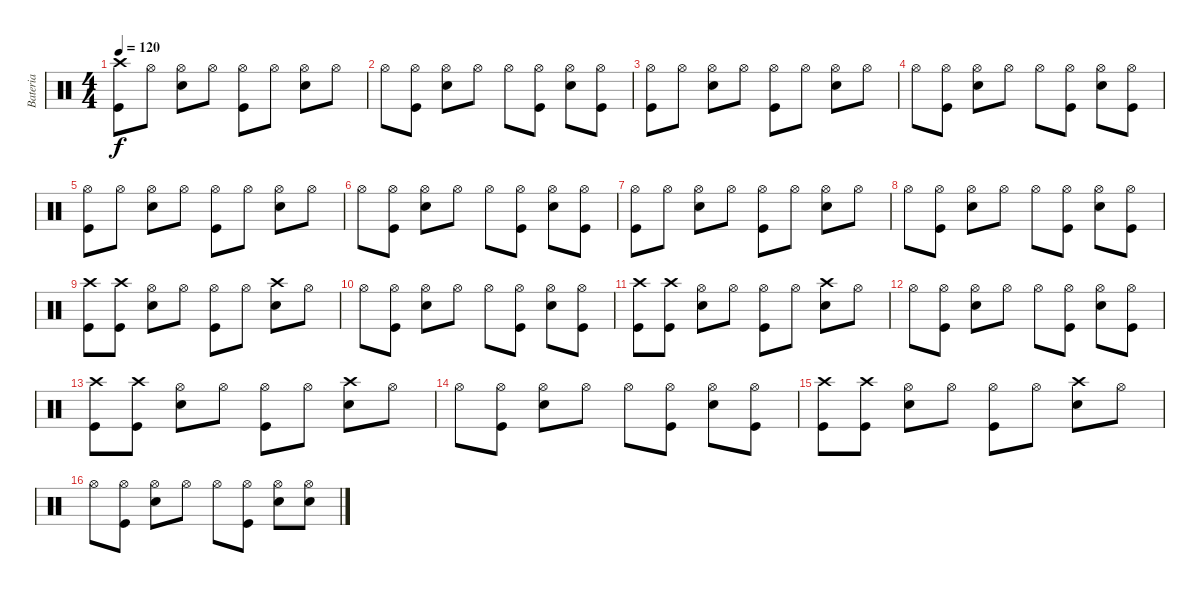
\track ("Bateria" "Bateria") {instrument percussion}
\staff {score}
\articulation defaults
\ts (4 4)
\tempo 120
\clef neutral
\ks c
("Kick (hit)" "Crash high (hit)").8{dy f} "Hi-Hat (open)".8 ("Electric Snare (hit)" "Hi-Hat (open)").8 "Hi-Hat (open)".8 ("Kick (hit)" "Hi-Hat (open)").8 "Hi-Hat (open)".8 ("Electric Snare (hit)" "Hi-Hat (open)").8 "Hi-Hat (open)".8 |
"Hi-Hat (open)".8 ("Kick (hit)" "Hi-Hat (open)").8 ("Electric Snare (hit)" "Hi-Hat (open)").8 "Hi-Hat (open)".8 "Hi-Hat (open)".8 ("Kick (hit)" "Hi-Hat (open)").8 ("Electric Snare (hit)" "Hi-Hat (open)").8 ("Kick (hit)" "Hi-Hat (open)").8 |
("Kick (hit)" "Hi-Hat (open)").8 "Hi-Hat (open)".8 ("Electric Snare (hit)" "Hi-Hat (open)").8 "Hi-Hat (open)".8 ("Kick (hit)" "Hi-Hat (open)").8 "Hi-Hat (open)".8 ("Electric Snare (hit)" "Hi-Hat (open)").8 "Hi-Hat (open)".8 |
"Hi-Hat (open)".8 ("Kick (hit)" "Hi-Hat (open)").8 ("Electric Snare (hit)" "Hi-Hat (open)").8 "Hi-Hat (open)".8 "Hi-Hat (open)".8 ("Kick (hit)" "Hi-Hat (open)").8 ("Electric Snare (hit)" "Hi-Hat (open)").8 ("Kick (hit)" "Hi-Hat (open)").8 |
("Kick (hit)" "Hi-Hat (open)").8 "Hi-Hat (open)".8 ("Electric Snare (hit)" "Hi-Hat (open)").8 "Hi-Hat (open)".8 ("Kick (hit)" "Hi-Hat (open)").8 "Hi-Hat (open)".8 ("Electric Snare (hit)" "Hi-Hat (open)").8 "Hi-Hat (open)".8 |
"Hi-Hat (open)".8 ("Kick (hit)" "Hi-Hat (open)").8 ("Electric Snare (hit)" "Hi-Hat (open)").8 "Hi-Hat (open)".8 "Hi-Hat (open)".8 ("Kick (hit)" "Hi-Hat (open)").8 ("Electric Snare (hit)" "Hi-Hat (open)").8 ("Kick (hit)" "Hi-Hat (open)").8 |
("Kick (hit)" "Hi-Hat (open)").8 "Hi-Hat (open)".8 ("Electric Snare (hit)" "Hi-Hat (open)").8 "Hi-Hat (open)".8 ("Kick (hit)" "Hi-Hat (open)").8 "Hi-Hat (open)".8 ("Electric Snare (hit)" "Hi-Hat (open)").8 "Hi-Hat (open)".8 |
"Hi-Hat (open)".8 ("Kick (hit)" "Hi-Hat (open)").8 ("Electric Snare (hit)" "Hi-Hat (open)").8 "Hi-Hat (open)".8 "Hi-Hat (open)".8 ("Kick (hit)" "Hi-Hat (open)").8 ("Electric Snare (hit)" "Hi-Hat (open)").8 ("Kick (hit)" "Hi-Hat (open)").8 |
("Kick (hit)" "Crash high (hit)").8 ("Kick (hit)" "Crash high (hit)").8 ("Electric Snare (hit)" "Hi-Hat (open)").8 "Hi-Hat (open)".8 ("Kick (hit)" "Hi-Hat (open)").8 "Hi-Hat (open)".8 ("Electric Snare (hit)" "Crash high (hit)").8 "Hi-Hat (open)".8 |
"Hi-Hat (open)".8 ("Kick (hit)" "Hi-Hat (open)").8 ("Electric Snare (hit)" "Hi-Hat (open)").8 "Hi-Hat (open)".8 "Hi-Hat (open)".8 ("Kick (hit)" "Hi-Hat (open)").8 ("Electric Snare (hit)" "Hi-Hat (open)").8 ("Kick (hit)" "Hi-Hat (open)").8 |
("Kick (hit)" "Crash high (hit)").8 ("Kick (hit)" "Crash high (hit)").8 ("Electric Snare (hit)" "Hi-Hat (open)").8 "Hi-Hat (open)".8 ("Kick (hit)" "Hi-Hat (open)").8 "Hi-Hat (open)".8 ("Electric Snare (hit)" "Crash high (hit)").8 "Hi-Hat (open)".8 |
"Hi-Hat (open)".8 ("Kick (hit)" "Hi-Hat (open)").8 ("Electric Snare (hit)" "Hi-Hat (open)").8 "Hi-Hat (open)".8 "Hi-Hat (open)".8 ("Kick (hit)" "Hi-Hat (open)").8 ("Electric Snare (hit)" "Hi-Hat (open)").8 ("Kick (hit)" "Hi-Hat (open)").8 |
("Kick (hit)" "Crash high (hit)").8 ("Kick (hit)" "Crash high (hit)").8 ("Electric Snare (hit)" "Hi-Hat (open)").8 "Hi-Hat (open)".8 ("Kick (hit)" "Hi-Hat (open)").8 "Hi-Hat (open)".8 ("Electric Snare (hit)" "Crash high (hit)").8 "Hi-Hat (open)".8 |
"Hi-Hat (open)".8 ("Kick (hit)" "Hi-Hat (open)").8 ("Electric Snare (hit)" "Hi-Hat (open)").8 "Hi-Hat (open)".8 "Hi-Hat (open)".8 ("Kick (hit)" "Hi-Hat (open)").8 ("Electric Snare (hit)" "Hi-Hat (open)").8 ("Kick (hit)" "Hi-Hat (open)").8 |
("Kick (hit)" "Crash high (hit)").8 ("Kick (hit)" "Crash high (hit)").8 ("Electric Snare (hit)" "Hi-Hat (open)").8 "Hi-Hat (open)".8 ("Kick (hit)" "Hi-Hat (open)").8 "Hi-Hat (open)".8 ("Electric Snare (hit)" "Crash high (hit)").8 "Hi-Hat (open)".8 |
"Hi-Hat (open)".8 ("Kick (hit)" "Hi-Hat (open)").8 ("Electric Snare (hit)" "Hi-Hat (open)").8 "Hi-Hat (open)".8 "Hi-Hat (open)".8 ("Kick (hit)" "Hi-Hat (open)").8 ("Electric Snare (hit)" "Hi-Hat (open)").8 ("Electric Snare (hit)" "Hi-Hat (open)").8
